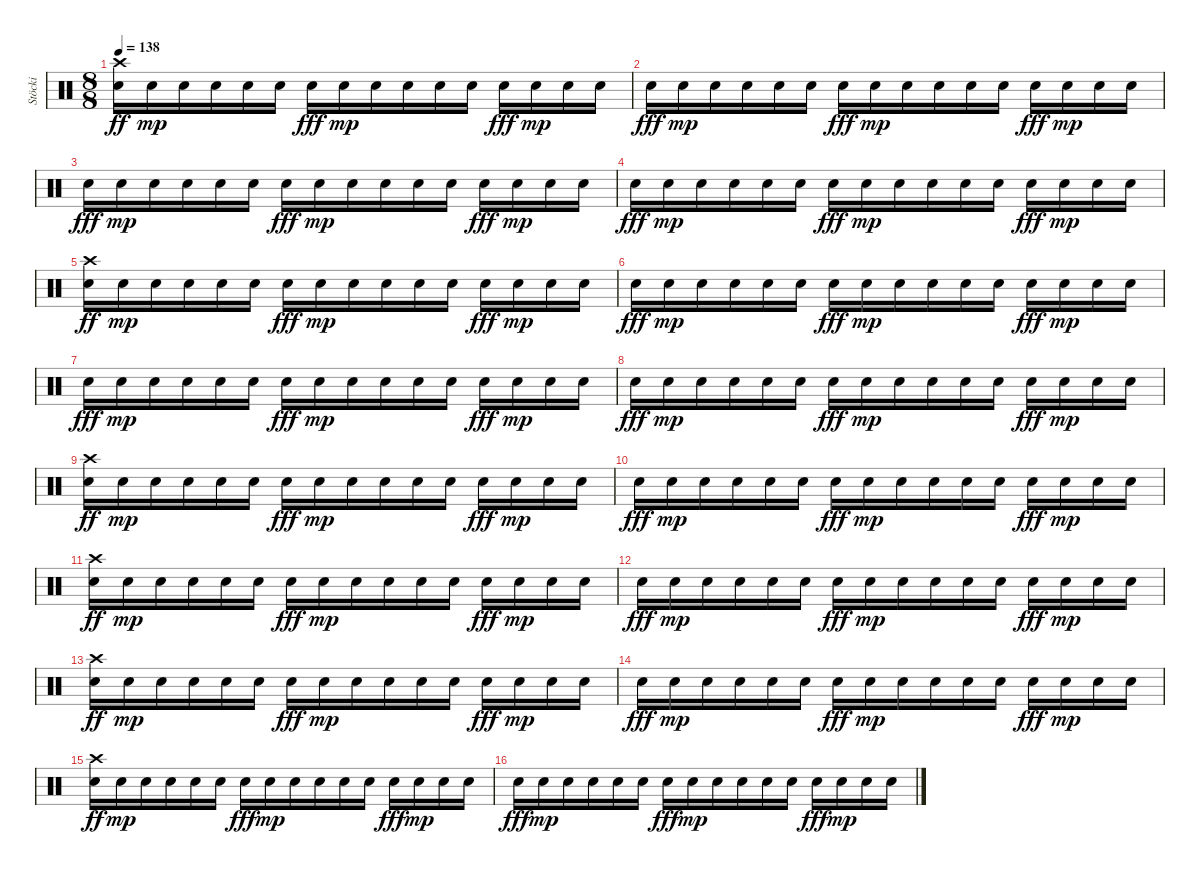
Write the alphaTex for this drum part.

\track ("Stöcki" "Stöcki") {instrument percussion}
\staff {score}
\articulation defaults
\ts (8 8)
\tempo 138
\clef neutral
\ks c
("Snare (hit) 2" "Crash high (hit)").16{dy ff} "Snare (hit) 2".16{dy mp} "Snare (hit) 2".16 "Snare (hit) 2".16 "Snare (hit) 2".16 "Snare (hit) 2".16 "Snare (hit) 2".16{dy fff} "Snare (hit) 2".16{dy mp} "Snare (hit) 2".16 "Snare (hit) 2".16 "Snare (hit) 2".16 "Snare (hit) 2".16 "Snare (hit) 2".16{dy fff} "Snare (hit) 2".16{dy mp} "Snare (hit) 2".16 "Snare (hit) 2".16 |
"Snare (hit) 2".16{dy fff} "Snare (hit) 2".16{dy mp} "Snare (hit) 2".16 "Snare (hit) 2".16 "Snare (hit) 2".16 "Snare (hit) 2".16 "Snare (hit) 2".16{dy fff} "Snare (hit) 2".16{dy mp} "Snare (hit) 2".16 "Snare (hit) 2".16 "Snare (hit) 2".16 "Snare (hit) 2".16 "Snare (hit) 2".16{dy fff} "Snare (hit) 2".16{dy mp} "Snare (hit) 2".16 "Snare (hit) 2".16 |
"Snare (hit) 2".16{dy fff} "Snare (hit) 2".16{dy mp} "Snare (hit) 2".16 "Snare (hit) 2".16 "Snare (hit) 2".16 "Snare (hit) 2".16 "Snare (hit) 2".16{dy fff} "Snare (hit) 2".16{dy mp} "Snare (hit) 2".16 "Snare (hit) 2".16 "Snare (hit) 2".16 "Snare (hit) 2".16 "Snare (hit) 2".16{dy fff} "Snare (hit) 2".16{dy mp} "Snare (hit) 2".16 "Snare (hit) 2".16 |
"Snare (hit) 2".16{dy fff} "Snare (hit) 2".16{dy mp} "Snare (hit) 2".16 "Snare (hit) 2".16 "Snare (hit) 2".16 "Snare (hit) 2".16 "Snare (hit) 2".16{dy fff} "Snare (hit) 2".16{dy mp} "Snare (hit) 2".16 "Snare (hit) 2".16 "Snare (hit) 2".16 "Snare (hit) 2".16 "Snare (hit) 2".16{dy fff} "Snare (hit) 2".16{dy mp} "Snare (hit) 2".16 "Snare (hit) 2".16 |
("Snare (hit) 2" "Crash high (hit)").16{dy ff} "Snare (hit) 2".16{dy mp} "Snare (hit) 2".16 "Snare (hit) 2".16 "Snare (hit) 2".16 "Snare (hit) 2".16 "Snare (hit) 2".16{dy fff} "Snare (hit) 2".16{dy mp} "Snare (hit) 2".16 "Snare (hit) 2".16 "Snare (hit) 2".16 "Snare (hit) 2".16 "Snare (hit) 2".16{dy fff} "Snare (hit) 2".16{dy mp} "Snare (hit) 2".16 "Snare (hit) 2".16 |
"Snare (hit) 2".16{dy fff} "Snare (hit) 2".16{dy mp} "Snare (hit) 2".16 "Snare (hit) 2".16 "Snare (hit) 2".16 "Snare (hit) 2".16 "Snare (hit) 2".16{dy fff} "Snare (hit) 2".16{dy mp} "Snare (hit) 2".16 "Snare (hit) 2".16 "Snare (hit) 2".16 "Snare (hit) 2".16 "Snare (hit) 2".16{dy fff} "Snare (hit) 2".16{dy mp} "Snare (hit) 2".16 "Snare (hit) 2".16 |
"Snare (hit) 2".16{dy fff} "Snare (hit) 2".16{dy mp} "Snare (hit) 2".16 "Snare (hit) 2".16 "Snare (hit) 2".16 "Snare (hit) 2".16 "Snare (hit) 2".16{dy fff} "Snare (hit) 2".16{dy mp} "Snare (hit) 2".16 "Snare (hit) 2".16 "Snare (hit) 2".16 "Snare (hit) 2".16 "Snare (hit) 2".16{dy fff} "Snare (hit) 2".16{dy mp} "Snare (hit) 2".16 "Snare (hit) 2".16 |
"Snare (hit) 2".16{dy fff} "Snare (hit) 2".16{dy mp} "Snare (hit) 2".16 "Snare (hit) 2".16 "Snare (hit) 2".16 "Snare (hit) 2".16 "Snare (hit) 2".16{dy fff} "Snare (hit) 2".16{dy mp} "Snare (hit) 2".16 "Snare (hit) 2".16 "Snare (hit) 2".16 "Snare (hit) 2".16 "Snare (hit) 2".16{dy fff} "Snare (hit) 2".16{dy mp} "Snare (hit) 2".16 "Snare (hit) 2".16 |
("Snare (hit) 2" "Crash high (hit)").16{dy ff} "Snare (hit) 2".16{dy mp} "Snare (hit) 2".16 "Snare (hit) 2".16 "Snare (hit) 2".16 "Snare (hit) 2".16 "Snare (hit) 2".16{dy fff} "Snare (hit) 2".16{dy mp} "Snare (hit) 2".16 "Snare (hit) 2".16 "Snare (hit) 2".16 "Snare (hit) 2".16 "Snare (hit) 2".16{dy fff} "Snare (hit) 2".16{dy mp} "Snare (hit) 2".16 "Snare (hit) 2".16 |
"Snare (hit) 2".16{dy fff} "Snare (hit) 2".16{dy mp} "Snare (hit) 2".16 "Snare (hit) 2".16 "Snare (hit) 2".16 "Snare (hit) 2".16 "Snare (hit) 2".16{dy fff} "Snare (hit) 2".16{dy mp} "Snare (hit) 2".16 "Snare (hit) 2".16 "Snare (hit) 2".16 "Snare (hit) 2".16 "Snare (hit) 2".16{dy fff} "Snare (hit) 2".16{dy mp} "Snare (hit) 2".16 "Snare (hit) 2".16 |
("Snare (hit) 2" "Crash high (hit)").16{dy ff} "Snare (hit) 2".16{dy mp} "Snare (hit) 2".16 "Snare (hit) 2".16 "Snare (hit) 2".16 "Snare (hit) 2".16 "Snare (hit) 2".16{dy fff} "Snare (hit) 2".16{dy mp} "Snare (hit) 2".16 "Snare (hit) 2".16 "Snare (hit) 2".16 "Snare (hit) 2".16 "Snare (hit) 2".16{dy fff} "Snare (hit) 2".16{dy mp} "Snare (hit) 2".16 "Snare (hit) 2".16 |
"Snare (hit) 2".16{dy fff} "Snare (hit) 2".16{dy mp} "Snare (hit) 2".16 "Snare (hit) 2".16 "Snare (hit) 2".16 "Snare (hit) 2".16 "Snare (hit) 2".16{dy fff} "Snare (hit) 2".16{dy mp} "Snare (hit) 2".16 "Snare (hit) 2".16 "Snare (hit) 2".16 "Snare (hit) 2".16 "Snare (hit) 2".16{dy fff} "Snare (hit) 2".16{dy mp} "Snare (hit) 2".16 "Snare (hit) 2".16 |
("Snare (hit) 2" "Crash high (hit)").16{dy ff} "Snare (hit) 2".16{dy mp} "Snare (hit) 2".16 "Snare (hit) 2".16 "Snare (hit) 2".16 "Snare (hit) 2".16 "Snare (hit) 2".16{dy fff} "Snare (hit) 2".16{dy mp} "Snare (hit) 2".16 "Snare (hit) 2".16 "Snare (hit) 2".16 "Snare (hit) 2".16 "Snare (hit) 2".16{dy fff} "Snare (hit) 2".16{dy mp} "Snare (hit) 2".16 "Snare (hit) 2".16 |
"Snare (hit) 2".16{dy fff} "Snare (hit) 2".16{dy mp} "Snare (hit) 2".16 "Snare (hit) 2".16 "Snare (hit) 2".16 "Snare (hit) 2".16 "Snare (hit) 2".16{dy fff} "Snare (hit) 2".16{dy mp} "Snare (hit) 2".16 "Snare (hit) 2".16 "Snare (hit) 2".16 "Snare (hit) 2".16 "Snare (hit) 2".16{dy fff} "Snare (hit) 2".16{dy mp} "Snare (hit) 2".16 "Snare (hit) 2".16 |
("Snare (hit) 2" "Crash high (hit)").16{dy ff} "Snare (hit) 2".16{dy mp} "Snare (hit) 2".16 "Snare (hit) 2".16 "Snare (hit) 2".16 "Snare (hit) 2".16 "Snare (hit) 2".16{dy fff} "Snare (hit) 2".16{dy mp} "Snare (hit) 2".16 "Snare (hit) 2".16 "Snare (hit) 2".16 "Snare (hit) 2".16 "Snare (hit) 2".16{dy fff} "Snare (hit) 2".16{dy mp} "Snare (hit) 2".16 "Snare (hit) 2".16 |
"Snare (hit) 2".16{dy fff} "Snare (hit) 2".16{dy mp} "Snare (hit) 2".16 "Snare (hit) 2".16 "Snare (hit) 2".16 "Snare (hit) 2".16 "Snare (hit) 2".16{dy fff} "Snare (hit) 2".16{dy mp} "Snare (hit) 2".16 "Snare (hit) 2".16 "Snare (hit) 2".16 "Snare (hit) 2".16 "Snare (hit) 2".16{dy fff} "Snare (hit) 2".16{dy mp} "Snare (hit) 2".16 "Snare (hit) 2".16
